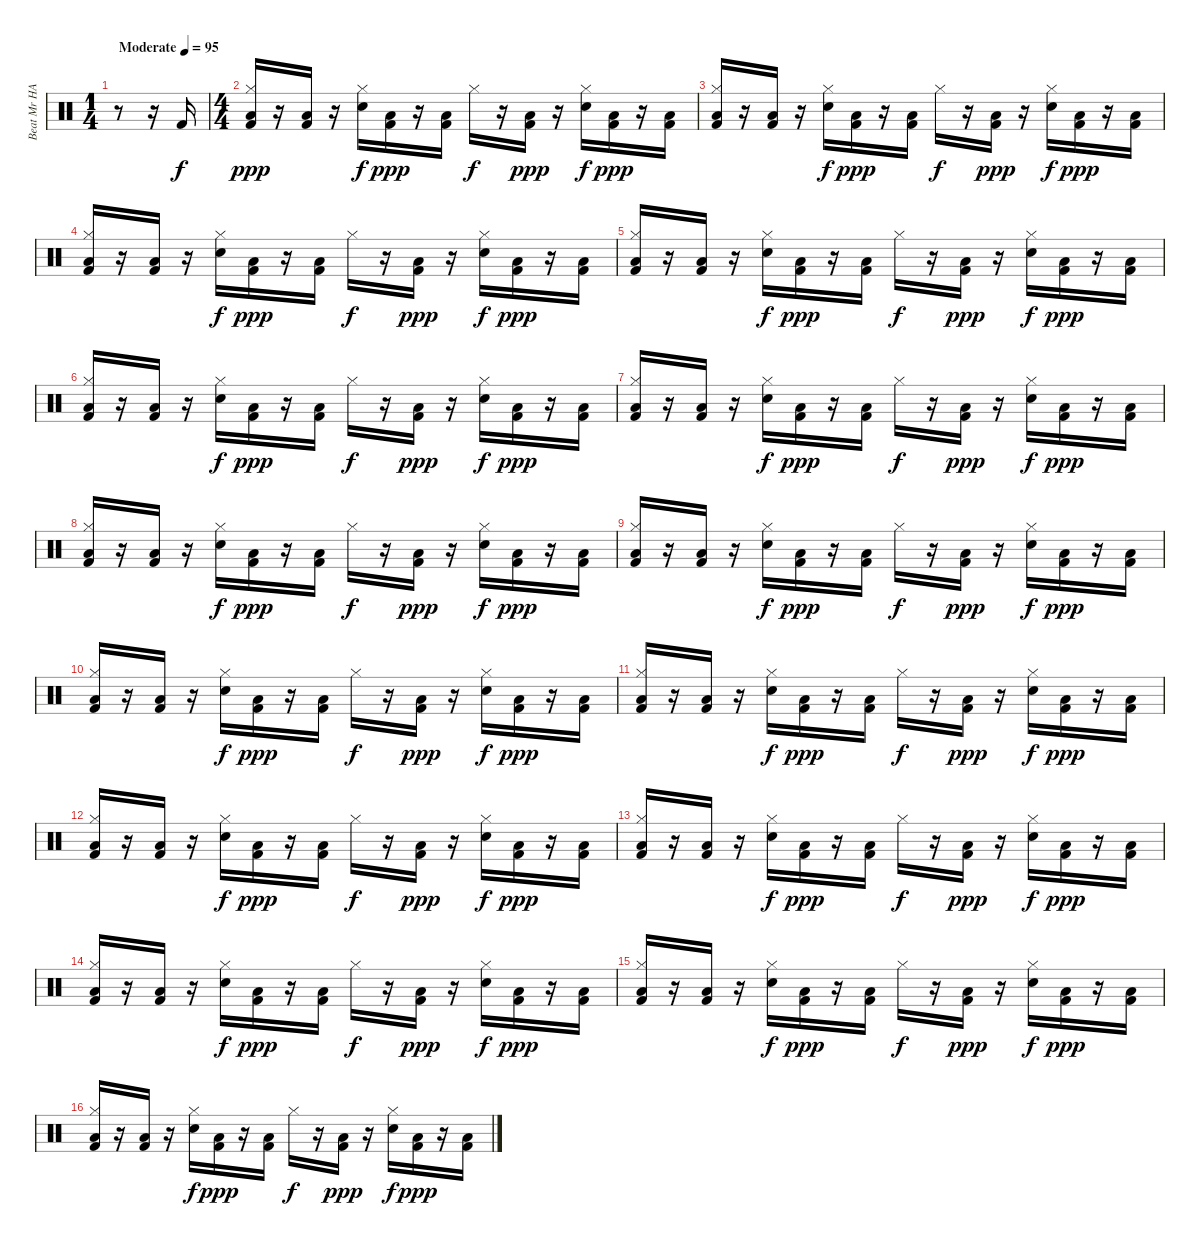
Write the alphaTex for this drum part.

\track ("Beat Mr HAHN" "Beat Mr HA") {instrument percussion}
\staff {score}
\articulation defaults
\ts (1 4)
\tempo (95 "Moderate")
\clef neutral
\ks c
r.8{dy f} r.16 "Kick (hit) 2".16 |
\ts (4 4)
("Hi-Hat (closed)" "Low Floor Tom (hit)" "Kick (hit) 2").16{dy ppp} r.16 ("Low Floor Tom (hit)" "Kick (hit) 2").16 r.16 ("Hi-Hat (closed)" "Electric Snare (hit)").16{dy f} ("Low Floor Tom (hit)" "Kick (hit) 2").16{dy ppp} r.16 ("Low Floor Tom (hit)" "Kick (hit) 2").16 "Hi-Hat (closed)".16{dy f} r.16 ("Low Floor Tom (hit)" "Kick (hit) 2").16{dy ppp} r.16 ("Hi-Hat (closed)" "Electric Snare (hit)").16{dy f} ("Low Floor Tom (hit)" "Kick (hit) 2").16{dy ppp} r.16 ("Low Floor Tom (hit)" "Kick (hit) 2").16 |
("Hi-Hat (closed)" "Low Floor Tom (hit)" "Kick (hit) 2").16 r.16 ("Low Floor Tom (hit)" "Kick (hit) 2").16 r.16 ("Hi-Hat (closed)" "Electric Snare (hit)").16{dy f} ("Low Floor Tom (hit)" "Kick (hit) 2").16{dy ppp} r.16 ("Low Floor Tom (hit)" "Kick (hit) 2").16 "Hi-Hat (closed)".16{dy f} r.16 ("Low Floor Tom (hit)" "Kick (hit) 2").16{dy ppp} r.16 ("Hi-Hat (closed)" "Electric Snare (hit)").16{dy f} ("Low Floor Tom (hit)" "Kick (hit) 2").16{dy ppp} r.16 ("Low Floor Tom (hit)" "Kick (hit) 2").16 |
("Hi-Hat (closed)" "Low Floor Tom (hit)" "Kick (hit) 2").16 r.16 ("Low Floor Tom (hit)" "Kick (hit) 2").16 r.16 ("Hi-Hat (closed)" "Electric Snare (hit)").16{dy f} ("Low Floor Tom (hit)" "Kick (hit) 2").16{dy ppp} r.16 ("Low Floor Tom (hit)" "Kick (hit) 2").16 "Hi-Hat (closed)".16{dy f} r.16 ("Low Floor Tom (hit)" "Kick (hit) 2").16{dy ppp} r.16 ("Hi-Hat (closed)" "Electric Snare (hit)").16{dy f} ("Low Floor Tom (hit)" "Kick (hit) 2").16{dy ppp} r.16 ("Low Floor Tom (hit)" "Kick (hit) 2").16 |
("Hi-Hat (closed)" "Low Floor Tom (hit)" "Kick (hit) 2").16 r.16 ("Low Floor Tom (hit)" "Kick (hit) 2").16 r.16 ("Hi-Hat (closed)" "Electric Snare (hit)").16{dy f} ("Low Floor Tom (hit)" "Kick (hit) 2").16{dy ppp} r.16 ("Low Floor Tom (hit)" "Kick (hit) 2").16 "Hi-Hat (closed)".16{dy f} r.16 ("Low Floor Tom (hit)" "Kick (hit) 2").16{dy ppp} r.16 ("Hi-Hat (closed)" "Electric Snare (hit)").16{dy f} ("Low Floor Tom (hit)" "Kick (hit) 2").16{dy ppp} r.16 ("Low Floor Tom (hit)" "Kick (hit) 2").16 |
("Hi-Hat (closed)" "Low Floor Tom (hit)" "Kick (hit) 2").16 r.16 ("Low Floor Tom (hit)" "Kick (hit) 2").16 r.16 ("Hi-Hat (closed)" "Electric Snare (hit)").16{dy f} ("Low Floor Tom (hit)" "Kick (hit) 2").16{dy ppp} r.16 ("Low Floor Tom (hit)" "Kick (hit) 2").16 "Hi-Hat (closed)".16{dy f} r.16 ("Low Floor Tom (hit)" "Kick (hit) 2").16{dy ppp} r.16 ("Hi-Hat (closed)" "Electric Snare (hit)").16{dy f} ("Low Floor Tom (hit)" "Kick (hit) 2").16{dy ppp} r.16 ("Low Floor Tom (hit)" "Kick (hit) 2").16 |
("Hi-Hat (closed)" "Low Floor Tom (hit)" "Kick (hit) 2").16 r.16 ("Low Floor Tom (hit)" "Kick (hit) 2").16 r.16 ("Hi-Hat (closed)" "Electric Snare (hit)").16{dy f} ("Low Floor Tom (hit)" "Kick (hit) 2").16{dy ppp} r.16 ("Low Floor Tom (hit)" "Kick (hit) 2").16 "Hi-Hat (closed)".16{dy f} r.16 ("Low Floor Tom (hit)" "Kick (hit) 2").16{dy ppp} r.16 ("Hi-Hat (closed)" "Electric Snare (hit)").16{dy f} ("Low Floor Tom (hit)" "Kick (hit) 2").16{dy ppp} r.16 ("Low Floor Tom (hit)" "Kick (hit) 2").16 |
("Hi-Hat (closed)" "Low Floor Tom (hit)" "Kick (hit) 2").16 r.16 ("Low Floor Tom (hit)" "Kick (hit) 2").16 r.16 ("Hi-Hat (closed)" "Electric Snare (hit)").16{dy f} ("Low Floor Tom (hit)" "Kick (hit) 2").16{dy ppp} r.16 ("Low Floor Tom (hit)" "Kick (hit) 2").16 "Hi-Hat (closed)".16{dy f} r.16 ("Low Floor Tom (hit)" "Kick (hit) 2").16{dy ppp} r.16 ("Hi-Hat (closed)" "Electric Snare (hit)").16{dy f} ("Low Floor Tom (hit)" "Kick (hit) 2").16{dy ppp} r.16 ("Low Floor Tom (hit)" "Kick (hit) 2").16 |
("Hi-Hat (closed)" "Low Floor Tom (hit)" "Kick (hit) 2").16 r.16 ("Low Floor Tom (hit)" "Kick (hit) 2").16 r.16 ("Hi-Hat (closed)" "Electric Snare (hit)").16{dy f} ("Low Floor Tom (hit)" "Kick (hit) 2").16{dy ppp} r.16 ("Low Floor Tom (hit)" "Kick (hit) 2").16 "Hi-Hat (closed)".16{dy f} r.16 ("Low Floor Tom (hit)" "Kick (hit) 2").16{dy ppp} r.16 ("Hi-Hat (closed)" "Electric Snare (hit)").16{dy f} ("Low Floor Tom (hit)" "Kick (hit) 2").16{dy ppp} r.16 ("Low Floor Tom (hit)" "Kick (hit) 2").16 |
("Hi-Hat (closed)" "Low Floor Tom (hit)" "Kick (hit) 2").16 r.16 ("Low Floor Tom (hit)" "Kick (hit) 2").16 r.16 ("Hi-Hat (closed)" "Electric Snare (hit)").16{dy f} ("Low Floor Tom (hit)" "Kick (hit) 2").16{dy ppp} r.16 ("Low Floor Tom (hit)" "Kick (hit) 2").16 "Hi-Hat (closed)".16{dy f} r.16 ("Low Floor Tom (hit)" "Kick (hit) 2").16{dy ppp} r.16 ("Hi-Hat (closed)" "Electric Snare (hit)").16{dy f} ("Low Floor Tom (hit)" "Kick (hit) 2").16{dy ppp} r.16 ("Low Floor Tom (hit)" "Kick (hit) 2").16 |
("Hi-Hat (closed)" "Low Floor Tom (hit)" "Kick (hit) 2").16 r.16 ("Low Floor Tom (hit)" "Kick (hit) 2").16 r.16 ("Hi-Hat (closed)" "Electric Snare (hit)").16{dy f} ("Low Floor Tom (hit)" "Kick (hit) 2").16{dy ppp} r.16 ("Low Floor Tom (hit)" "Kick (hit) 2").16 "Hi-Hat (closed)".16{dy f} r.16 ("Low Floor Tom (hit)" "Kick (hit) 2").16{dy ppp} r.16 ("Hi-Hat (closed)" "Electric Snare (hit)").16{dy f} ("Low Floor Tom (hit)" "Kick (hit) 2").16{dy ppp} r.16 ("Low Floor Tom (hit)" "Kick (hit) 2").16 |
("Hi-Hat (closed)" "Low Floor Tom (hit)" "Kick (hit) 2").16 r.16 ("Low Floor Tom (hit)" "Kick (hit) 2").16 r.16 ("Hi-Hat (closed)" "Electric Snare (hit)").16{dy f} ("Low Floor Tom (hit)" "Kick (hit) 2").16{dy ppp} r.16 ("Low Floor Tom (hit)" "Kick (hit) 2").16 "Hi-Hat (closed)".16{dy f} r.16 ("Low Floor Tom (hit)" "Kick (hit) 2").16{dy ppp} r.16 ("Hi-Hat (closed)" "Electric Snare (hit)").16{dy f} ("Low Floor Tom (hit)" "Kick (hit) 2").16{dy ppp} r.16 ("Low Floor Tom (hit)" "Kick (hit) 2").16 |
("Hi-Hat (closed)" "Low Floor Tom (hit)" "Kick (hit) 2").16 r.16 ("Low Floor Tom (hit)" "Kick (hit) 2").16 r.16 ("Hi-Hat (closed)" "Electric Snare (hit)").16{dy f} ("Low Floor Tom (hit)" "Kick (hit) 2").16{dy ppp} r.16 ("Low Floor Tom (hit)" "Kick (hit) 2").16 "Hi-Hat (closed)".16{dy f} r.16 ("Low Floor Tom (hit)" "Kick (hit) 2").16{dy ppp} r.16 ("Hi-Hat (closed)" "Electric Snare (hit)").16{dy f} ("Low Floor Tom (hit)" "Kick (hit) 2").16{dy ppp} r.16 ("Low Floor Tom (hit)" "Kick (hit) 2").16 |
("Hi-Hat (closed)" "Low Floor Tom (hit)" "Kick (hit) 2").16 r.16 ("Low Floor Tom (hit)" "Kick (hit) 2").16 r.16 ("Hi-Hat (closed)" "Electric Snare (hit)").16{dy f} ("Low Floor Tom (hit)" "Kick (hit) 2").16{dy ppp} r.16 ("Low Floor Tom (hit)" "Kick (hit) 2").16 "Hi-Hat (closed)".16{dy f} r.16 ("Low Floor Tom (hit)" "Kick (hit) 2").16{dy ppp} r.16 ("Hi-Hat (closed)" "Electric Snare (hit)").16{dy f} ("Low Floor Tom (hit)" "Kick (hit) 2").16{dy ppp} r.16 ("Low Floor Tom (hit)" "Kick (hit) 2").16 |
("Hi-Hat (closed)" "Low Floor Tom (hit)" "Kick (hit) 2").16 r.16 ("Low Floor Tom (hit)" "Kick (hit) 2").16 r.16 ("Hi-Hat (closed)" "Electric Snare (hit)").16{dy f} ("Low Floor Tom (hit)" "Kick (hit) 2").16{dy ppp} r.16 ("Low Floor Tom (hit)" "Kick (hit) 2").16 "Hi-Hat (closed)".16{dy f} r.16 ("Low Floor Tom (hit)" "Kick (hit) 2").16{dy ppp} r.16 ("Hi-Hat (closed)" "Electric Snare (hit)").16{dy f} ("Low Floor Tom (hit)" "Kick (hit) 2").16{dy ppp} r.16 ("Low Floor Tom (hit)" "Kick (hit) 2").16 |
("Hi-Hat (closed)" "Low Floor Tom (hit)" "Kick (hit) 2").16 r.16 ("Low Floor Tom (hit)" "Kick (hit) 2").16 r.16 ("Hi-Hat (closed)" "Electric Snare (hit)").16{dy f} ("Low Floor Tom (hit)" "Kick (hit) 2").16{dy ppp} r.16 ("Low Floor Tom (hit)" "Kick (hit) 2").16 "Hi-Hat (closed)".16{dy f} r.16 ("Low Floor Tom (hit)" "Kick (hit) 2").16{dy ppp} r.16 ("Hi-Hat (closed)" "Electric Snare (hit)").16{dy f} ("Low Floor Tom (hit)" "Kick (hit) 2").16{dy ppp} r.16 ("Low Floor Tom (hit)" "Kick (hit) 2").16
